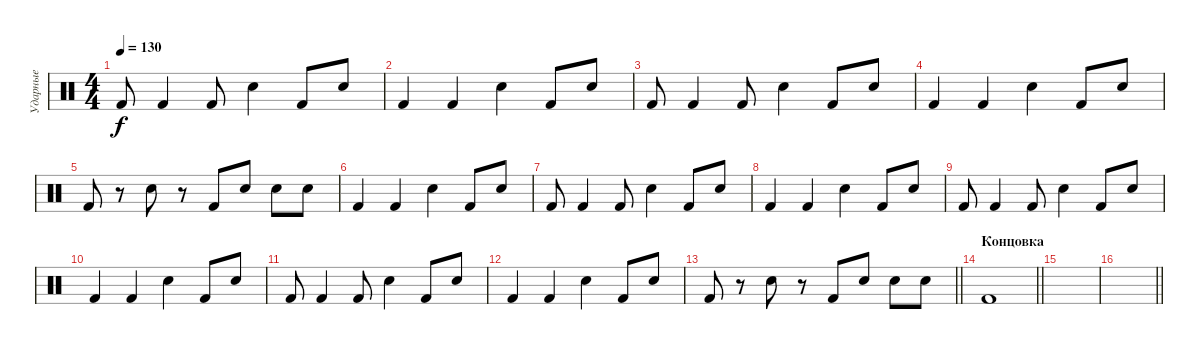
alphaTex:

\track ("Ударные" "Ударные") {instrument percussion}
\staff {score}
\articulation defaults
\ts (4 4)
\tempo 130
\clef neutral
\ks c "Kick (hit) 2".8{dy f} "Kick (hit) 2".4 "Kick (hit) 2".8 "Snare (hit) 2".4 "Kick (hit) 2".8 "Snare (hit) 2".8
|
"Kick (hit) 2".4 "Kick (hit) 2".4 "Snare (hit) 2".4 "Kick (hit) 2".8 "Snare (hit) 2".8 |
"Kick (hit) 2".8 "Kick (hit) 2".4 "Kick (hit) 2".8 "Snare (hit) 2".4 "Kick (hit) 2".8 "Snare (hit) 2".8 |
"Kick (hit) 2".4 "Kick (hit) 2".4 "Snare (hit) 2".4 "Kick (hit) 2".8 "Snare (hit) 2".8 |
"Kick (hit) 2".8 r.8 "Snare (hit) 2".8 r.8 "Kick (hit) 2".8 "Snare (hit) 2".8 "Snare (hit) 2".8 "Snare (hit) 2".8 |
"Kick (hit) 2".4 "Kick (hit) 2".4 "Snare (hit) 2".4 "Kick (hit) 2".8 "Snare (hit) 2".8 |
"Kick (hit) 2".8 "Kick (hit) 2".4 "Kick (hit) 2".8 "Snare (hit) 2".4 "Kick (hit) 2".8 "Snare (hit) 2".8 |
"Kick (hit) 2".4 "Kick (hit) 2".4 "Snare (hit) 2".4 "Kick (hit) 2".8 "Snare (hit) 2".8 |
"Kick (hit) 2".8 "Kick (hit) 2".4 "Kick (hit) 2".8 "Snare (hit) 2".4 "Kick (hit) 2".8 "Snare (hit) 2".8 |
"Kick (hit) 2".4 "Kick (hit) 2".4 "Snare (hit) 2".4 "Kick (hit) 2".8 "Snare (hit) 2".8 |
"Kick (hit) 2".8 "Kick (hit) 2".4 "Kick (hit) 2".8 "Snare (hit) 2".4 "Kick (hit) 2".8 "Snare (hit) 2".8 |
"Kick (hit) 2".4 "Kick (hit) 2".4 "Snare (hit) 2".4 "Kick (hit) 2".8 "Snare (hit) 2".8 |
\barLineRight lightlight "Kick (hit) 2".8
r.8 "Snare (hit) 2".8 r.8 "Kick (hit) 2".8 "Snare (hit) 2".8 "Snare (hit) 2".8 "Snare (hit) 2".8 |
\section ("" "Концовка")
\barLineRight lightlight "Kick (hit) 2".1
|
|
\barLineRight lightlight
